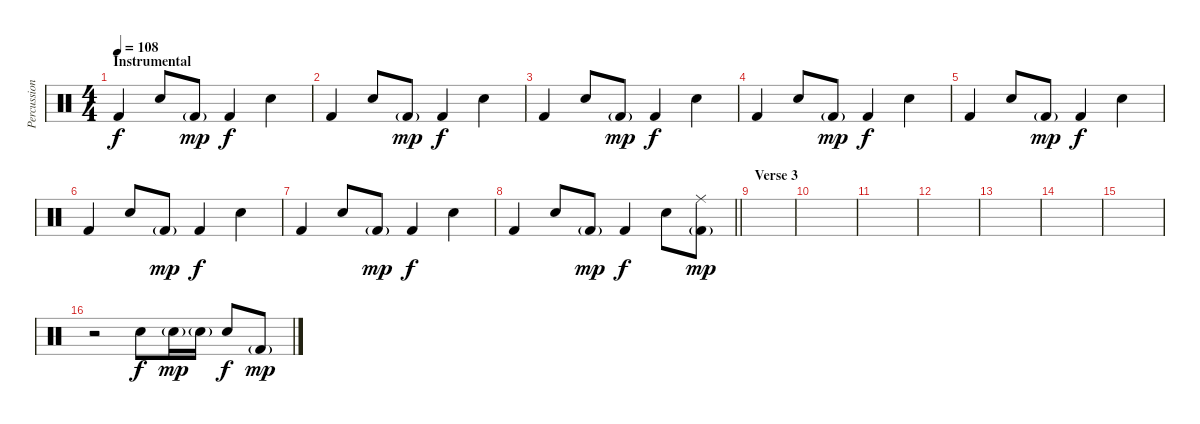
\track ("Percussion" "Percussion") {instrument percussion}
\staff {score}
\articulation defaults
\ts (4 4)
\section ("" "Instrumental")
\tempo 108
\clef neutral
\ks c "Kick (hit) 2".4{dy f} "Snare (hit) 2".8 "Kick (hit) 2"{g}.8{dy mp} "Kick (hit) 2".4{dy f} "Snare (hit) 2".4
|
"Kick (hit) 2".4 "Snare (hit) 2".8 "Kick (hit) 2"{g}.8{dy mp} "Kick (hit) 2".4{dy f} "Snare (hit) 2".4 |
"Kick (hit) 2".4 "Snare (hit) 2".8 "Kick (hit) 2"{g}.8{dy mp} "Kick (hit) 2".4{dy f} "Snare (hit) 2".4 |
"Kick (hit) 2".4 "Snare (hit) 2".8 "Kick (hit) 2"{g}.8{dy mp} "Kick (hit) 2".4{dy f} "Snare (hit) 2".4 |
"Kick (hit) 2".4 "Snare (hit) 2".8 "Kick (hit) 2"{g}.8{dy mp} "Kick (hit) 2".4{dy f} "Snare (hit) 2".4 |
"Kick (hit) 2".4 "Snare (hit) 2".8 "Kick (hit) 2"{g}.8{dy mp} "Kick (hit) 2".4{dy f} "Snare (hit) 2".4 |
"Kick (hit) 2".4 "Snare (hit) 2".8 "Kick (hit) 2"{g}.8{dy mp} "Kick (hit) 2".4{dy f} "Snare (hit) 2".4 |
\barLineRight lightlight "Kick (hit) 2".4 "Snare (hit) 2".8 "Kick (hit) 2"{g}.8{dy mp} "Kick (hit) 2".4{dy f} "Snare (hit) 2".8
("Ride (middle)" "Kick (hit) 2"{g}).8{dy mp} |
\section ("" "Verse 3")
|
|
|
|
|
|
|
r.2 "Snare (hit) 2".8{dy f} "Snare (hit) 2"{g}.16{dy mp} "Snare (hit) 2"{g}.16 "Snare (hit) 2".8{dy f} "Kick (hit) 2"{g}.8{dy mp}
